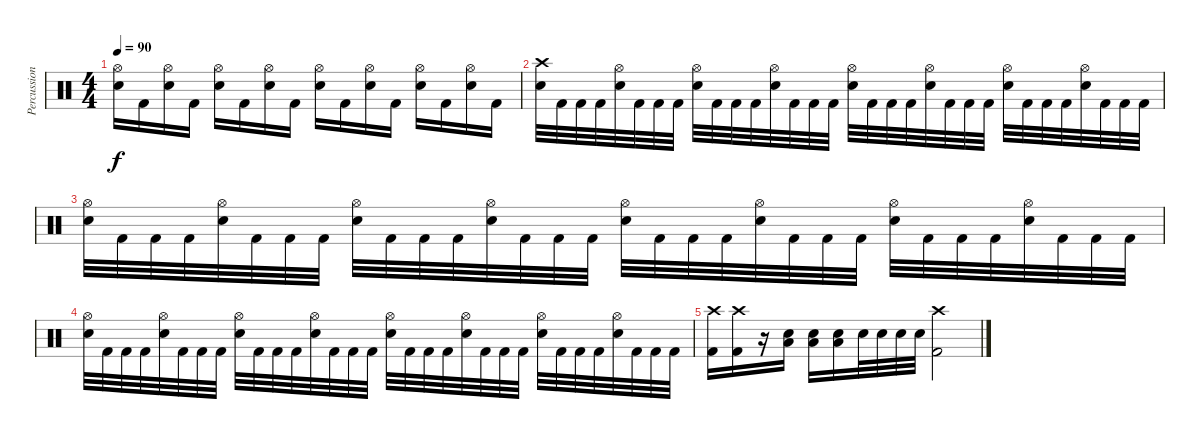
\track ("Percussion" "Percussion") {instrument percussion}
\staff {score}
\articulation defaults
\ts (4 4)
\tempo 90
\clef neutral
\ks c
("Electric Snare (hit)" "Hi-Hat (open)").16{dy f} "Kick (hit) 2".16 ("Electric Snare (hit)" "Hi-Hat (open)").16 "Kick (hit) 2".16 ("Electric Snare (hit)" "Hi-Hat (open)").16 "Kick (hit) 2".16 ("Electric Snare (hit)" "Hi-Hat (open)").16 "Kick (hit) 2".16 ("Electric Snare (hit)" "Hi-Hat (open)").16 "Kick (hit) 2".16 ("Electric Snare (hit)" "Hi-Hat (open)").16 "Kick (hit) 2".16 ("Electric Snare (hit)" "Hi-Hat (open)").16 "Kick (hit) 2".16 ("Electric Snare (hit)" "Hi-Hat (open)").16 "Kick (hit) 2".16 |
("Electric Snare (hit)" "Crash high (hit)").32 "Kick (hit) 2".32 "Kick (hit) 2".32 "Kick (hit) 2".32 ("Electric Snare (hit)" "Hi-Hat (open)").32 "Kick (hit) 2".32 "Kick (hit) 2".32 "Kick (hit) 2".32 ("Electric Snare (hit)" "Hi-Hat (open)").32 "Kick (hit) 2".32 "Kick (hit) 2".32 "Kick (hit) 2".32 ("Electric Snare (hit)" "Hi-Hat (open)").32 "Kick (hit) 2".32 "Kick (hit) 2".32 "Kick (hit) 2".32 ("Electric Snare (hit)" "Hi-Hat (open)").32 "Kick (hit) 2".32 "Kick (hit) 2".32 "Kick (hit) 2".32 ("Electric Snare (hit)" "Hi-Hat (open)").32 "Kick (hit) 2".32 "Kick (hit) 2".32 "Kick (hit) 2".32 ("Electric Snare (hit)" "Hi-Hat (open)").32 "Kick (hit) 2".32 "Kick (hit) 2".32 "Kick (hit) 2".32 ("Electric Snare (hit)" "Hi-Hat (open)").32 "Kick (hit) 2".32 "Kick (hit) 2".32 "Kick (hit) 2".32 |
("Electric Snare (hit)" "Hi-Hat (open)").32 "Kick (hit) 2".32 "Kick (hit) 2".32 "Kick (hit) 2".32 ("Electric Snare (hit)" "Hi-Hat (open)").32 "Kick (hit) 2".32 "Kick (hit) 2".32 "Kick (hit) 2".32 ("Electric Snare (hit)" "Hi-Hat (open)").32 "Kick (hit) 2".32 "Kick (hit) 2".32 "Kick (hit) 2".32 ("Electric Snare (hit)" "Hi-Hat (open)").32 "Kick (hit) 2".32 "Kick (hit) 2".32 "Kick (hit) 2".32 ("Electric Snare (hit)" "Hi-Hat (open)").32 "Kick (hit) 2".32 "Kick (hit) 2".32 "Kick (hit) 2".32 ("Electric Snare (hit)" "Hi-Hat (open)").32 "Kick (hit) 2".32 "Kick (hit) 2".32 "Kick (hit) 2".32 ("Electric Snare (hit)" "Hi-Hat (open)").32 "Kick (hit) 2".32 "Kick (hit) 2".32 "Kick (hit) 2".32 ("Electric Snare (hit)" "Hi-Hat (open)").32 "Kick (hit) 2".32 "Kick (hit) 2".32 "Kick (hit) 2".32 |
("Electric Snare (hit)" "Hi-Hat (open)").32 "Kick (hit) 2".32 "Kick (hit) 2".32 "Kick (hit) 2".32 ("Electric Snare (hit)" "Hi-Hat (open)").32 "Kick (hit) 2".32 "Kick (hit) 2".32 "Kick (hit) 2".32 ("Electric Snare (hit)" "Hi-Hat (open)").32 "Kick (hit) 2".32 "Kick (hit) 2".32 "Kick (hit) 2".32 ("Electric Snare (hit)" "Hi-Hat (open)").32 "Kick (hit) 2".32 "Kick (hit) 2".32 "Kick (hit) 2".32 ("Electric Snare (hit)" "Hi-Hat (open)").32 "Kick (hit) 2".32 "Kick (hit) 2".32 "Kick (hit) 2".32 ("Electric Snare (hit)" "Hi-Hat (open)").32 "Kick (hit) 2".32 "Kick (hit) 2".32 "Kick (hit) 2".32 ("Electric Snare (hit)" "Hi-Hat (open)").32 "Kick (hit) 2".32 "Kick (hit) 2".32 "Kick (hit) 2".32 ("Electric Snare (hit)" "Hi-Hat (open)").32 "Kick (hit) 2".32 "Kick (hit) 2".32 "Kick (hit) 2".32 |
("Kick (hit) 2" "Crash high (hit)").16 ("Kick (hit) 2" "Crash high (hit)").16 r.16 ("Electric Snare (hit)" "Low Tom (hit)").16 ("Electric Snare (hit)" "Low Tom (hit)").16 ("Electric Snare (hit)" "Low Tom (hit)").16 "Electric Snare (hit)".32 "Electric Snare (hit)".32 "Electric Snare (hit)".32 "Electric Snare (hit)".32 ("Kick (hit) 2" "Crash high (hit)").2
